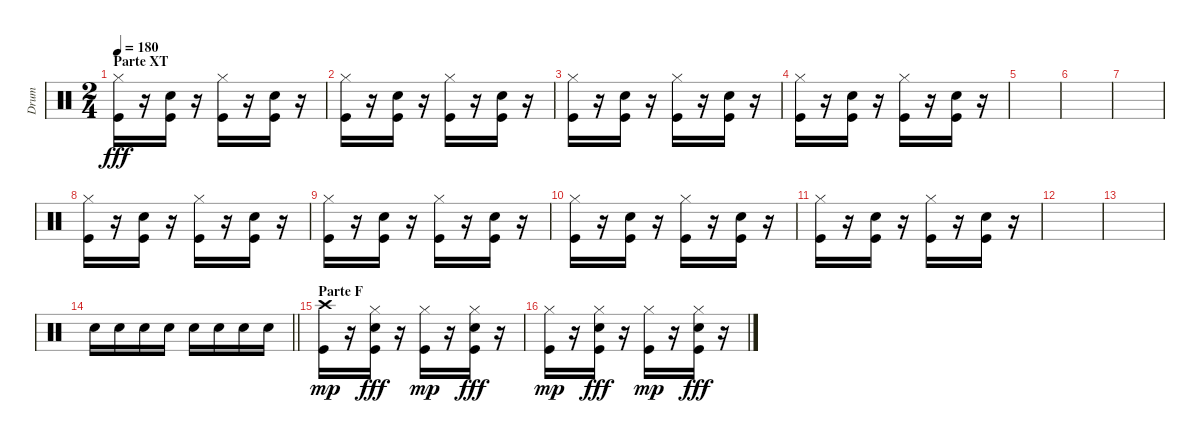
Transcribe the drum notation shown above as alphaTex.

\track ("Drum" "Drum") {instrument percussion}
\staff {score}
\articulation defaults
\ts (2 4)
\section ("" "Parte XT")
\tempo 180
\clef neutral
\ks c
("Hi-Hat (closed)" "Kick (hit)").16{dy fff} r.16 ("Snare (hit) 2" "Kick (hit)").16 r.16 ("Hi-Hat (closed)" "Kick (hit)").16 r.16 ("Snare (hit) 2" "Kick (hit)").16 r.16 |
("Hi-Hat (closed)" "Kick (hit)").16 r.16 ("Snare (hit) 2" "Kick (hit)").16 r.16 ("Hi-Hat (closed)" "Kick (hit)").16 r.16 ("Snare (hit) 2" "Kick (hit)").16 r.16 |
("Hi-Hat (closed)" "Kick (hit)").16 r.16 ("Snare (hit) 2" "Kick (hit)").16 r.16 ("Hi-Hat (closed)" "Kick (hit)").16 r.16 ("Snare (hit) 2" "Kick (hit)").16 r.16 |
("Hi-Hat (closed)" "Kick (hit)").16 r.16 ("Snare (hit) 2" "Kick (hit)").16 r.16 ("Hi-Hat (closed)" "Kick (hit)").16 r.16 ("Snare (hit) 2" "Kick (hit)").16 r.16 |
|
|
|
("Hi-Hat (closed)" "Kick (hit)").16 r.16 ("Snare (hit) 2" "Kick (hit)").16 r.16 ("Hi-Hat (closed)" "Kick (hit)").16 r.16 ("Snare (hit) 2" "Kick (hit)").16 r.16 |
("Hi-Hat (closed)" "Kick (hit)").16 r.16 ("Snare (hit) 2" "Kick (hit)").16 r.16 ("Hi-Hat (closed)" "Kick (hit)").16 r.16 ("Snare (hit) 2" "Kick (hit)").16 r.16 |
("Hi-Hat (closed)" "Kick (hit)").16 r.16 ("Snare (hit) 2" "Kick (hit)").16 r.16 ("Hi-Hat (closed)" "Kick (hit)").16 r.16 ("Snare (hit) 2" "Kick (hit)").16 r.16 |
("Hi-Hat (closed)" "Kick (hit)").16 r.16 ("Snare (hit) 2" "Kick (hit)").16 r.16 ("Hi-Hat (closed)" "Kick (hit)").16 r.16 ("Snare (hit) 2" "Kick (hit)").16 r.16 |
|
|
\barLineRight lightlight "Snare (hit) 2".16 "Snare (hit) 2".16 "Snare (hit) 2".16 "Snare (hit) 2".16 "Snare (hit) 2".16 "Snare (hit) 2".16 "Snare (hit) 2".16 "Snare (hit) 2".16
|
\section ("" "Parte F")
("Crash high (hit)" "Kick (hit)").16{dy mp} r.16 ("Hi-Hat (closed)" "Snare (hit) 2" "Kick (hit)").16{dy fff} r.16 ("Hi-Hat (closed)" "Kick (hit)").16{dy mp} r.16 ("Hi-Hat (closed)" "Snare (hit) 2" "Kick (hit)").16{dy fff} r.16 |
("Hi-Hat (closed)" "Kick (hit)").16{dy mp} r.16 ("Hi-Hat (closed)" "Snare (hit) 2" "Kick (hit)").16{dy fff} r.16 ("Hi-Hat (closed)" "Kick (hit)").16{dy mp} r.16 ("Hi-Hat (closed)" "Snare (hit) 2" "Kick (hit)").16{dy fff} r.16
